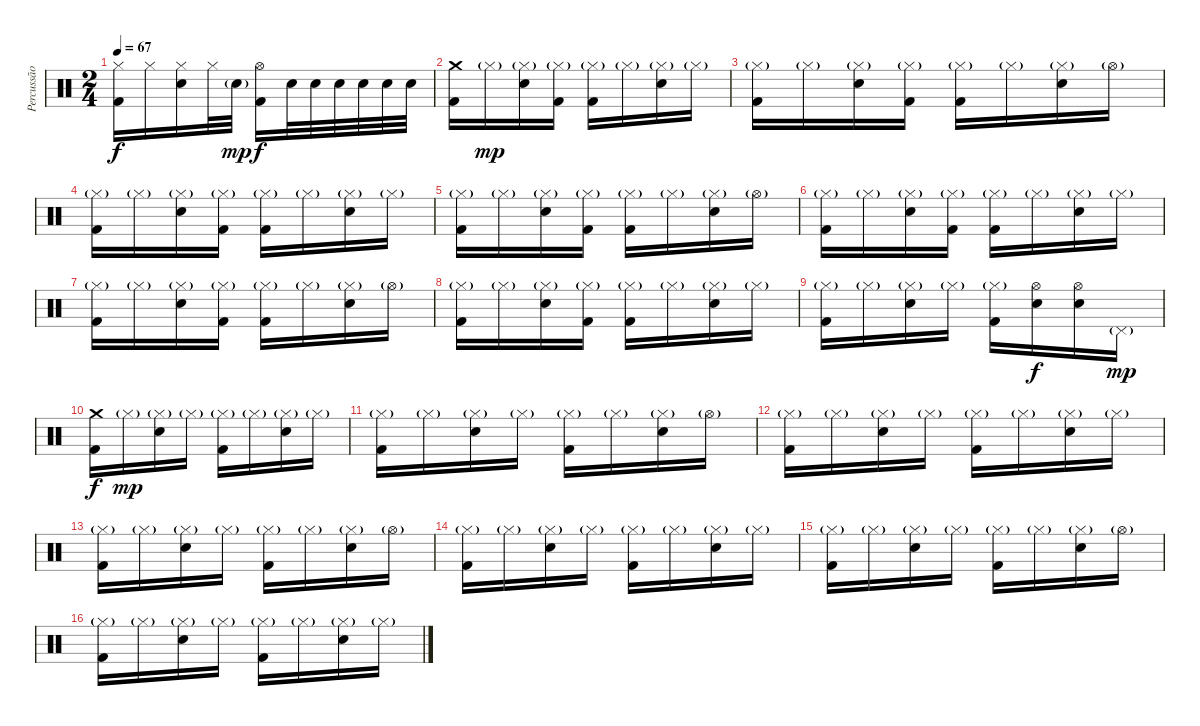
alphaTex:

\track ("Percussão" "Percussão") {instrument percussion}
\staff {score}
\articulation defaults
\ts (2 4)
\tempo 67
\clef neutral
\ks c
("Hi-Hat (closed)" "Kick (hit) 2").16{dy f} "Hi-Hat (closed)".16 ("Hi-Hat (closed)" "Snare (hit) 2").16 "Hi-Hat (closed)".32 "Snare (hit) 2"{g}.32{dy mp} ("Hi-Hat (open)" "Kick (hit) 2").16{dy f} "Snare (hit) 2".32 "Snare (hit) 2".32 "Snare (hit) 2".32 "Snare (hit) 2".32 "Snare (hit) 2".32 "Snare (hit) 2".32 |
("Crash medium (hit)" "Kick (hit) 2").16 "Hi-Hat (closed)"{g}.16{dy mp} ("Hi-Hat (closed)"{g} "Snare (hit) 2").16 ("Hi-Hat (closed)"{g} "Kick (hit) 2").16 ("Hi-Hat (closed)"{g} "Kick (hit) 2").16 "Hi-Hat (closed)"{g}.16 ("Hi-Hat (closed)"{g} "Snare (hit) 2").16 "Hi-Hat (closed)"{g}.16 |
("Hi-Hat (closed)"{g} "Kick (hit) 2").16 "Hi-Hat (closed)"{g}.16 ("Hi-Hat (closed)"{g} "Snare (hit) 2").16 ("Hi-Hat (closed)"{g} "Kick (hit) 2").16 ("Hi-Hat (closed)"{g} "Kick (hit) 2").16 "Hi-Hat (closed)"{g}.16 ("Hi-Hat (closed)"{g} "Snare (hit) 2").16 "Hi-Hat (open)"{g}.16 |
("Hi-Hat (closed)"{g} "Kick (hit) 2").16 "Hi-Hat (closed)"{g}.16 ("Hi-Hat (closed)"{g} "Snare (hit) 2").16 ("Hi-Hat (closed)"{g} "Kick (hit) 2").16 ("Hi-Hat (closed)"{g} "Kick (hit) 2").16 "Hi-Hat (closed)"{g}.16 ("Hi-Hat (closed)"{g} "Snare (hit) 2").16 "Hi-Hat (closed)"{g}.16 |
("Hi-Hat (closed)"{g} "Kick (hit) 2").16 "Hi-Hat (closed)"{g}.16 ("Hi-Hat (closed)"{g} "Snare (hit) 2").16 ("Hi-Hat (closed)"{g} "Kick (hit) 2").16 ("Hi-Hat (closed)"{g} "Kick (hit) 2").16 "Hi-Hat (closed)"{g}.16 ("Hi-Hat (closed)"{g} "Snare (hit) 2").16 "Hi-Hat (open)"{g}.16 |
("Hi-Hat (closed)"{g} "Kick (hit) 2").16 "Hi-Hat (closed)"{g}.16 ("Hi-Hat (closed)"{g} "Snare (hit) 2").16 ("Hi-Hat (closed)"{g} "Kick (hit) 2").16 ("Hi-Hat (closed)"{g} "Kick (hit) 2").16 "Hi-Hat (closed)"{g}.16 ("Hi-Hat (closed)"{g} "Snare (hit) 2").16 "Hi-Hat (closed)"{g}.16 |
("Hi-Hat (closed)"{g} "Kick (hit) 2").16 "Hi-Hat (closed)"{g}.16 ("Hi-Hat (closed)"{g} "Snare (hit) 2").16 ("Hi-Hat (closed)"{g} "Kick (hit) 2").16 ("Hi-Hat (closed)"{g} "Kick (hit) 2").16 "Hi-Hat (closed)"{g}.16 ("Hi-Hat (closed)"{g} "Snare (hit) 2").16 "Hi-Hat (open)"{g}.16 |
("Hi-Hat (closed)"{g} "Kick (hit) 2").16 "Hi-Hat (closed)"{g}.16 ("Hi-Hat (closed)"{g} "Snare (hit) 2").16 ("Hi-Hat (closed)"{g} "Kick (hit) 2").16 ("Hi-Hat (closed)"{g} "Kick (hit) 2").16 "Hi-Hat (closed)"{g}.16 ("Hi-Hat (closed)"{g} "Snare (hit) 2").16 "Hi-Hat (closed)"{g}.16 |
("Hi-Hat (closed)"{g} "Kick (hit) 2").16 "Hi-Hat (closed)"{g}.16 ("Hi-Hat (closed)"{g} "Snare (hit) 2").16 "Hi-Hat (closed)"{g}.16 ("Hi-Hat (closed)"{g} "Kick (hit) 2").16 ("Hi-Hat (open)" "Snare (hit) 2").16{dy f} ("Hi-Hat (open)" "Snare (hit) 2").16 "Pedal Hi-Hat (hit)"{g}.16{dy mp} |
("Crash medium (hit)" "Kick (hit) 2").16{dy f} "Hi-Hat (closed)"{g}.16{dy mp} ("Hi-Hat (closed)"{g} "Snare (hit) 2").16 "Hi-Hat (closed)"{g}.16 ("Hi-Hat (closed)"{g} "Kick (hit) 2").16 "Hi-Hat (closed)"{g}.16 ("Hi-Hat (closed)"{g} "Snare (hit) 2").16 "Hi-Hat (closed)"{g}.16 |
("Hi-Hat (closed)"{g} "Kick (hit) 2").16 "Hi-Hat (closed)"{g}.16 ("Hi-Hat (closed)"{g} "Snare (hit) 2").16 "Hi-Hat (closed)"{g}.16 ("Hi-Hat (closed)"{g} "Kick (hit) 2").16 "Hi-Hat (closed)"{g}.16 ("Hi-Hat (closed)"{g} "Snare (hit) 2").16 "Hi-Hat (open)"{g}.16 |
("Hi-Hat (closed)"{g} "Kick (hit) 2").16 "Hi-Hat (closed)"{g}.16 ("Hi-Hat (closed)"{g} "Snare (hit) 2").16 "Hi-Hat (closed)"{g}.16 ("Hi-Hat (closed)"{g} "Kick (hit) 2").16 "Hi-Hat (closed)"{g}.16 ("Hi-Hat (closed)"{g} "Snare (hit) 2").16 "Hi-Hat (closed)"{g}.16 |
("Hi-Hat (closed)"{g} "Kick (hit) 2").16 "Hi-Hat (closed)"{g}.16 ("Hi-Hat (closed)"{g} "Snare (hit) 2").16 "Hi-Hat (closed)"{g}.16 ("Hi-Hat (closed)"{g} "Kick (hit) 2").16 "Hi-Hat (closed)"{g}.16 ("Hi-Hat (closed)"{g} "Snare (hit) 2").16 "Hi-Hat (open)"{g}.16 |
("Hi-Hat (closed)"{g} "Kick (hit) 2").16 "Hi-Hat (closed)"{g}.16 ("Hi-Hat (closed)"{g} "Snare (hit) 2").16 "Hi-Hat (closed)"{g}.16 ("Hi-Hat (closed)"{g} "Kick (hit) 2").16 "Hi-Hat (closed)"{g}.16 ("Hi-Hat (closed)"{g} "Snare (hit) 2").16 "Hi-Hat (closed)"{g}.16 |
("Hi-Hat (closed)"{g} "Kick (hit) 2").16 "Hi-Hat (closed)"{g}.16 ("Hi-Hat (closed)"{g} "Snare (hit) 2").16 "Hi-Hat (closed)"{g}.16 ("Hi-Hat (closed)"{g} "Kick (hit) 2").16 "Hi-Hat (closed)"{g}.16 ("Hi-Hat (closed)"{g} "Snare (hit) 2").16 "Hi-Hat (open)"{g}.16 |
("Hi-Hat (closed)"{g} "Kick (hit) 2").16 "Hi-Hat (closed)"{g}.16 ("Hi-Hat (closed)"{g} "Snare (hit) 2").16 "Hi-Hat (closed)"{g}.16 ("Hi-Hat (closed)"{g} "Kick (hit) 2").16 "Hi-Hat (closed)"{g}.16 ("Hi-Hat (closed)"{g} "Snare (hit) 2").16 "Hi-Hat (closed)"{g}.16
